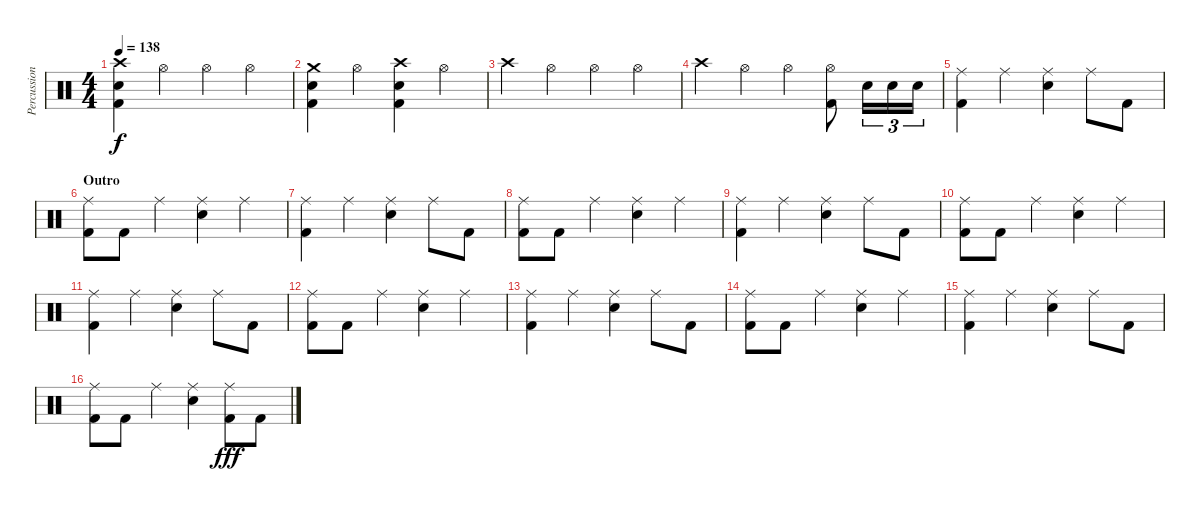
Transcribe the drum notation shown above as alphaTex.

\track ("Percussion" "Percussion") {instrument percussion}
\staff {score}
\articulation defaults
\ts (4 4)
\tempo 138
\clef neutral
\ks c
("Crash high (hit)" "Electric Snare (hit)" "Kick (hit) 2").4{dy f} "Hi-Hat (open)".4 "Hi-Hat (open)".4 "Hi-Hat (open)".4 |
("Crash medium (hit)" "Electric Snare (hit)" "Kick (hit) 2").4 "Hi-Hat (open)".4 ("Crash high (hit)" "Electric Snare (hit)" "Kick (hit) 2").4 "Hi-Hat (open)".4 |
"Crash high (hit)".4 "Hi-Hat (open)".4 "Hi-Hat (open)".4 "Hi-Hat (open)".4 |
"Crash high (hit)".4 "Hi-Hat (open)".4 "Hi-Hat (open)".4 ("Hi-Hat (open)" "Kick (hit) 2").8 "Electric Snare (hit)".16{tu (3 2)} "Electric Snare (hit)".16{tu (3 2)} "Electric Snare (hit)".16{tu (3 2)} |
("Ride (middle)" "Kick (hit) 2").4 "Ride (middle)".4 ("Ride (middle)" "Electric Snare (hit)").4 "Ride (middle)".8 "Kick (hit) 2".8 |
\section ("" "Outro")
("Ride (middle)" "Kick (hit) 2").8 "Kick (hit) 2".8 "Ride (middle)".4 ("Ride (middle)" "Electric Snare (hit)").4 "Ride (middle)".4 |
("Ride (middle)" "Kick (hit) 2").4 "Ride (middle)".4 ("Ride (middle)" "Electric Snare (hit)").4 "Ride (middle)".8 "Kick (hit) 2".8 |
("Ride (middle)" "Kick (hit) 2").8 "Kick (hit) 2".8 "Ride (middle)".4 ("Ride (middle)" "Electric Snare (hit)").4 "Ride (middle)".4 |
("Ride (middle)" "Kick (hit) 2").4 "Ride (middle)".4 ("Ride (middle)" "Electric Snare (hit)").4 "Ride (middle)".8 "Kick (hit) 2".8 |
("Ride (middle)" "Kick (hit) 2").8 "Kick (hit) 2".8 "Ride (middle)".4 ("Ride (middle)" "Electric Snare (hit)").4 "Ride (middle)".4 |
("Ride (middle)" "Kick (hit) 2").4 "Ride (middle)".4 ("Ride (middle)" "Electric Snare (hit)").4 "Ride (middle)".8 "Kick (hit) 2".8 |
("Ride (middle)" "Kick (hit) 2").8 "Kick (hit) 2".8 "Ride (middle)".4 ("Ride (middle)" "Electric Snare (hit)").4 "Ride (middle)".4 |
("Ride (middle)" "Kick (hit) 2").4 "Ride (middle)".4 ("Ride (middle)" "Electric Snare (hit)").4 "Ride (middle)".8 "Kick (hit) 2".8 |
("Ride (middle)" "Kick (hit) 2").8 "Kick (hit) 2".8 "Ride (middle)".4 ("Ride (middle)" "Electric Snare (hit)").4 "Ride (middle)".4 |
("Ride (middle)" "Kick (hit) 2").4 "Ride (middle)".4 ("Ride (middle)" "Electric Snare (hit)").4 "Ride (middle)".8 "Kick (hit) 2".8 |
("Ride (middle)" "Kick (hit) 2").8 "Kick (hit) 2".8 "Ride (middle)".4 ("Ride (middle)" "Electric Snare (hit)").4 ("Ride (middle)" "Kick (hit) 2").8{dy fff} "Kick (hit) 2".8
